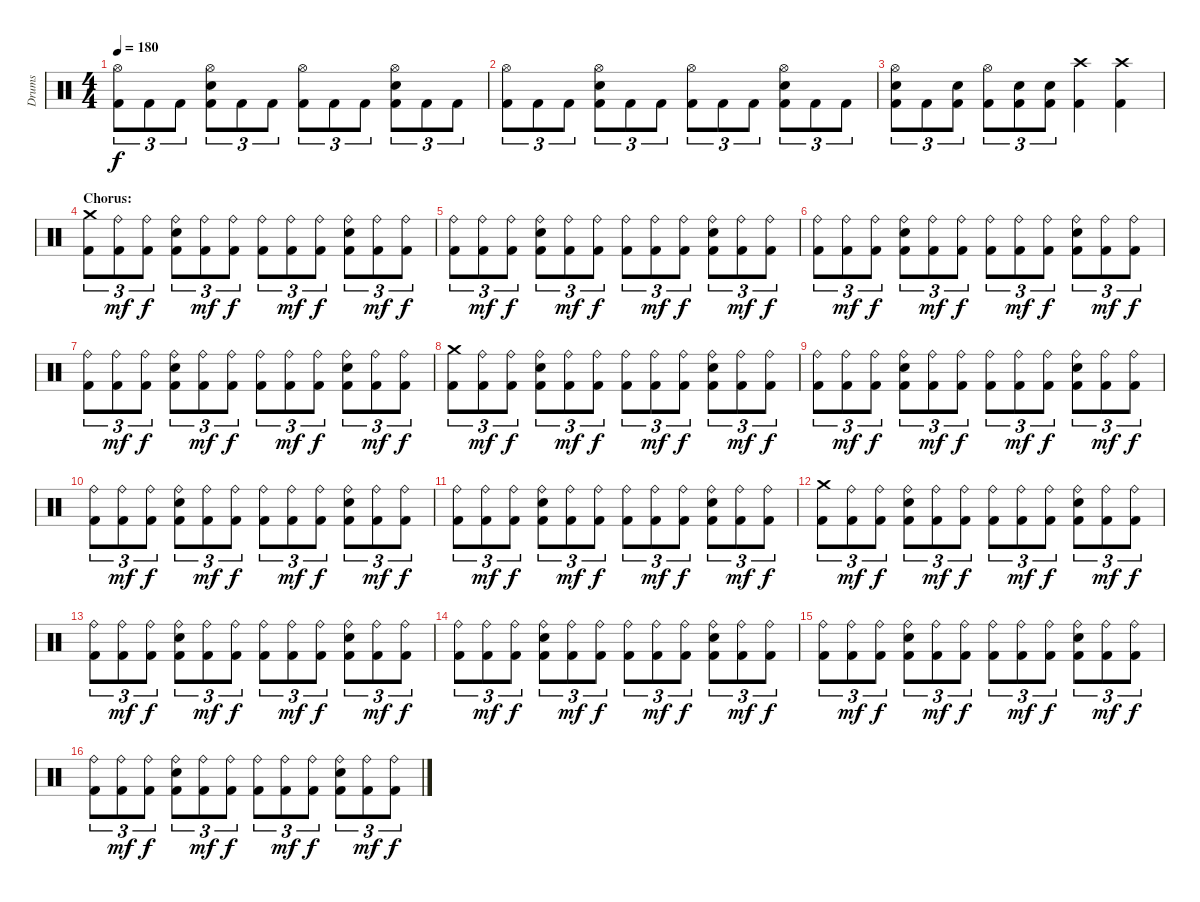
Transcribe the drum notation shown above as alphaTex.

\track ("Drums" "Drums") {instrument percussion}
\staff {score}
\articulation defaults
\ts (4 4)
\tempo 180
\clef neutral
\ks c
("Hi-Hat (open)" "Kick (hit) 2").8{tu (3 2) dy f} "Kick (hit) 2".8{tu (3 2)} "Kick (hit) 2".8{tu (3 2)} ("Hi-Hat (open)" "Electric Snare (hit)" "Kick (hit) 2").8{tu (3 2)} "Kick (hit) 2".8{tu (3 2)} "Kick (hit) 2".8{tu (3 2)} ("Hi-Hat (open)" "Kick (hit) 2").8{tu (3 2)} "Kick (hit) 2".8{tu (3 2)} "Kick (hit) 2".8{tu (3 2)} ("Hi-Hat (open)" "Electric Snare (hit)" "Kick (hit) 2").8{tu (3 2)} "Kick (hit) 2".8{tu (3 2)} "Kick (hit) 2".8{tu (3 2)} |
("Hi-Hat (open)" "Kick (hit) 2").8{tu (3 2)} "Kick (hit) 2".8{tu (3 2)} "Kick (hit) 2".8{tu (3 2)} ("Hi-Hat (open)" "Electric Snare (hit)" "Kick (hit) 2").8{tu (3 2)} "Kick (hit) 2".8{tu (3 2)} "Kick (hit) 2".8{tu (3 2)} ("Hi-Hat (open)" "Kick (hit) 2").8{tu (3 2)} "Kick (hit) 2".8{tu (3 2)} "Kick (hit) 2".8{tu (3 2)} ("Hi-Hat (open)" "Electric Snare (hit)" "Kick (hit) 2").8{tu (3 2)} "Kick (hit) 2".8{tu (3 2)} "Kick (hit) 2".8{tu (3 2)} |
("Hi-Hat (open)" "Electric Snare (hit)" "Kick (hit) 2").8{tu (3 2)} "Kick (hit) 2".8{tu (3 2)} ("Electric Snare (hit)" "Kick (hit) 2").8{tu (3 2)} ("Hi-Hat (open)" "Kick (hit) 2").8{tu (3 2)} ("Electric Snare (hit)" "Kick (hit) 2").8{tu (3 2)} ("Electric Snare (hit)" "Kick (hit) 2").8{tu (3 2)} ("Crash high (hit)" "Kick (hit) 2").4 ("Crash high (hit)" "Kick (hit) 2").4 |
\section ("" "Chorus:")
("Crash medium (hit)" "Kick (hit) 2").8{tu (3 2)} ("Ride (bell)" "Kick (hit) 2").8{tu (3 2) dy mf} ("Ride (bell)" "Kick (hit) 2").8{tu (3 2) dy f} ("Ride (bell)" "Electric Snare (hit)" "Kick (hit) 2").8{tu (3 2)} ("Ride (bell)" "Kick (hit) 2").8{tu (3 2) dy mf} ("Ride (bell)" "Kick (hit) 2").8{tu (3 2) dy f} ("Ride (bell)" "Kick (hit) 2").8{tu (3 2)} ("Ride (bell)" "Kick (hit) 2").8{tu (3 2) dy mf} ("Ride (bell)" "Kick (hit) 2").8{tu (3 2) dy f} ("Ride (bell)" "Electric Snare (hit)" "Kick (hit) 2").8{tu (3 2)} ("Ride (bell)" "Kick (hit) 2").8{tu (3 2) dy mf} ("Ride (bell)" "Kick (hit) 2").8{tu (3 2) dy f} |
("Ride (bell)" "Kick (hit) 2").8{tu (3 2)} ("Ride (bell)" "Kick (hit) 2").8{tu (3 2) dy mf} ("Ride (bell)" "Kick (hit) 2").8{tu (3 2) dy f} ("Ride (bell)" "Electric Snare (hit)" "Kick (hit) 2").8{tu (3 2)} ("Ride (bell)" "Kick (hit) 2").8{tu (3 2) dy mf} ("Ride (bell)" "Kick (hit) 2").8{tu (3 2) dy f} ("Ride (bell)" "Kick (hit) 2").8{tu (3 2)} ("Ride (bell)" "Kick (hit) 2").8{tu (3 2) dy mf} ("Ride (bell)" "Kick (hit) 2").8{tu (3 2) dy f} ("Ride (bell)" "Electric Snare (hit)" "Kick (hit) 2").8{tu (3 2)} ("Ride (bell)" "Kick (hit) 2").8{tu (3 2) dy mf} ("Ride (bell)" "Kick (hit) 2").8{tu (3 2) dy f} |
("Ride (bell)" "Kick (hit) 2").8{tu (3 2)} ("Ride (bell)" "Kick (hit) 2").8{tu (3 2) dy mf} ("Ride (bell)" "Kick (hit) 2").8{tu (3 2) dy f} ("Ride (bell)" "Electric Snare (hit)" "Kick (hit) 2").8{tu (3 2)} ("Ride (bell)" "Kick (hit) 2").8{tu (3 2) dy mf} ("Ride (bell)" "Kick (hit) 2").8{tu (3 2) dy f} ("Ride (bell)" "Kick (hit) 2").8{tu (3 2)} ("Ride (bell)" "Kick (hit) 2").8{tu (3 2) dy mf} ("Ride (bell)" "Kick (hit) 2").8{tu (3 2) dy f} ("Ride (bell)" "Electric Snare (hit)" "Kick (hit) 2").8{tu (3 2)} ("Ride (bell)" "Kick (hit) 2").8{tu (3 2) dy mf} ("Ride (bell)" "Kick (hit) 2").8{tu (3 2) dy f} |
("Ride (bell)" "Kick (hit) 2").8{tu (3 2)} ("Ride (bell)" "Kick (hit) 2").8{tu (3 2) dy mf} ("Ride (bell)" "Kick (hit) 2").8{tu (3 2) dy f} ("Ride (bell)" "Electric Snare (hit)" "Kick (hit) 2").8{tu (3 2)} ("Ride (bell)" "Kick (hit) 2").8{tu (3 2) dy mf} ("Ride (bell)" "Kick (hit) 2").8{tu (3 2) dy f} ("Ride (bell)" "Kick (hit) 2").8{tu (3 2)} ("Ride (bell)" "Kick (hit) 2").8{tu (3 2) dy mf} ("Ride (bell)" "Kick (hit) 2").8{tu (3 2) dy f} ("Ride (bell)" "Electric Snare (hit)" "Kick (hit) 2").8{tu (3 2)} ("Ride (bell)" "Kick (hit) 2").8{tu (3 2) dy mf} ("Ride (bell)" "Kick (hit) 2").8{tu (3 2) dy f} |
("Crash medium (hit)" "Kick (hit) 2").8{tu (3 2)} ("Ride (bell)" "Kick (hit) 2").8{tu (3 2) dy mf} ("Ride (bell)" "Kick (hit) 2").8{tu (3 2) dy f} ("Ride (bell)" "Electric Snare (hit)" "Kick (hit) 2").8{tu (3 2)} ("Ride (bell)" "Kick (hit) 2").8{tu (3 2) dy mf} ("Ride (bell)" "Kick (hit) 2").8{tu (3 2) dy f} ("Ride (bell)" "Kick (hit) 2").8{tu (3 2)} ("Ride (bell)" "Kick (hit) 2").8{tu (3 2) dy mf} ("Ride (bell)" "Kick (hit) 2").8{tu (3 2) dy f} ("Ride (bell)" "Electric Snare (hit)" "Kick (hit) 2").8{tu (3 2)} ("Ride (bell)" "Kick (hit) 2").8{tu (3 2) dy mf} ("Ride (bell)" "Kick (hit) 2").8{tu (3 2) dy f} |
("Ride (bell)" "Kick (hit) 2").8{tu (3 2)} ("Ride (bell)" "Kick (hit) 2").8{tu (3 2) dy mf} ("Ride (bell)" "Kick (hit) 2").8{tu (3 2) dy f} ("Ride (bell)" "Electric Snare (hit)" "Kick (hit) 2").8{tu (3 2)} ("Ride (bell)" "Kick (hit) 2").8{tu (3 2) dy mf} ("Ride (bell)" "Kick (hit) 2").8{tu (3 2) dy f} ("Ride (bell)" "Kick (hit) 2").8{tu (3 2)} ("Ride (bell)" "Kick (hit) 2").8{tu (3 2) dy mf} ("Ride (bell)" "Kick (hit) 2").8{tu (3 2) dy f} ("Ride (bell)" "Electric Snare (hit)" "Kick (hit) 2").8{tu (3 2)} ("Ride (bell)" "Kick (hit) 2").8{tu (3 2) dy mf} ("Ride (bell)" "Kick (hit) 2").8{tu (3 2) dy f} |
("Ride (bell)" "Kick (hit) 2").8{tu (3 2)} ("Ride (bell)" "Kick (hit) 2").8{tu (3 2) dy mf} ("Ride (bell)" "Kick (hit) 2").8{tu (3 2) dy f} ("Ride (bell)" "Electric Snare (hit)" "Kick (hit) 2").8{tu (3 2)} ("Ride (bell)" "Kick (hit) 2").8{tu (3 2) dy mf} ("Ride (bell)" "Kick (hit) 2").8{tu (3 2) dy f} ("Ride (bell)" "Kick (hit) 2").8{tu (3 2)} ("Ride (bell)" "Kick (hit) 2").8{tu (3 2) dy mf} ("Ride (bell)" "Kick (hit) 2").8{tu (3 2) dy f} ("Ride (bell)" "Electric Snare (hit)" "Kick (hit) 2").8{tu (3 2)} ("Ride (bell)" "Kick (hit) 2").8{tu (3 2) dy mf} ("Ride (bell)" "Kick (hit) 2").8{tu (3 2) dy f} |
("Ride (bell)" "Kick (hit) 2").8{tu (3 2)} ("Ride (bell)" "Kick (hit) 2").8{tu (3 2) dy mf} ("Ride (bell)" "Kick (hit) 2").8{tu (3 2) dy f} ("Ride (bell)" "Electric Snare (hit)" "Kick (hit) 2").8{tu (3 2)} ("Ride (bell)" "Kick (hit) 2").8{tu (3 2) dy mf} ("Ride (bell)" "Kick (hit) 2").8{tu (3 2) dy f} ("Ride (bell)" "Kick (hit) 2").8{tu (3 2)} ("Ride (bell)" "Kick (hit) 2").8{tu (3 2) dy mf} ("Ride (bell)" "Kick (hit) 2").8{tu (3 2) dy f} ("Ride (bell)" "Electric Snare (hit)" "Kick (hit) 2").8{tu (3 2)} ("Ride (bell)" "Kick (hit) 2").8{tu (3 2) dy mf} ("Ride (bell)" "Kick (hit) 2").8{tu (3 2) dy f} |
("Crash medium (hit)" "Kick (hit) 2").8{tu (3 2)} ("Ride (bell)" "Kick (hit) 2").8{tu (3 2) dy mf} ("Ride (bell)" "Kick (hit) 2").8{tu (3 2) dy f} ("Ride (bell)" "Electric Snare (hit)" "Kick (hit) 2").8{tu (3 2)} ("Ride (bell)" "Kick (hit) 2").8{tu (3 2) dy mf} ("Ride (bell)" "Kick (hit) 2").8{tu (3 2) dy f} ("Ride (bell)" "Kick (hit) 2").8{tu (3 2)} ("Ride (bell)" "Kick (hit) 2").8{tu (3 2) dy mf} ("Ride (bell)" "Kick (hit) 2").8{tu (3 2) dy f} ("Ride (bell)" "Electric Snare (hit)" "Kick (hit) 2").8{tu (3 2)} ("Ride (bell)" "Kick (hit) 2").8{tu (3 2) dy mf} ("Ride (bell)" "Kick (hit) 2").8{tu (3 2) dy f} |
("Ride (bell)" "Kick (hit) 2").8{tu (3 2)} ("Ride (bell)" "Kick (hit) 2").8{tu (3 2) dy mf} ("Ride (bell)" "Kick (hit) 2").8{tu (3 2) dy f} ("Ride (bell)" "Electric Snare (hit)" "Kick (hit) 2").8{tu (3 2)} ("Ride (bell)" "Kick (hit) 2").8{tu (3 2) dy mf} ("Ride (bell)" "Kick (hit) 2").8{tu (3 2) dy f} ("Ride (bell)" "Kick (hit) 2").8{tu (3 2)} ("Ride (bell)" "Kick (hit) 2").8{tu (3 2) dy mf} ("Ride (bell)" "Kick (hit) 2").8{tu (3 2) dy f} ("Ride (bell)" "Electric Snare (hit)" "Kick (hit) 2").8{tu (3 2)} ("Ride (bell)" "Kick (hit) 2").8{tu (3 2) dy mf} ("Ride (bell)" "Kick (hit) 2").8{tu (3 2) dy f} |
("Ride (bell)" "Kick (hit) 2").8{tu (3 2)} ("Ride (bell)" "Kick (hit) 2").8{tu (3 2) dy mf} ("Ride (bell)" "Kick (hit) 2").8{tu (3 2) dy f} ("Ride (bell)" "Electric Snare (hit)" "Kick (hit) 2").8{tu (3 2)} ("Ride (bell)" "Kick (hit) 2").8{tu (3 2) dy mf} ("Ride (bell)" "Kick (hit) 2").8{tu (3 2) dy f} ("Ride (bell)" "Kick (hit) 2").8{tu (3 2)} ("Ride (bell)" "Kick (hit) 2").8{tu (3 2) dy mf} ("Ride (bell)" "Kick (hit) 2").8{tu (3 2) dy f} ("Ride (bell)" "Electric Snare (hit)" "Kick (hit) 2").8{tu (3 2)} ("Ride (bell)" "Kick (hit) 2").8{tu (3 2) dy mf} ("Ride (bell)" "Kick (hit) 2").8{tu (3 2) dy f} |
("Ride (bell)" "Kick (hit) 2").8{tu (3 2)} ("Ride (bell)" "Kick (hit) 2").8{tu (3 2) dy mf} ("Ride (bell)" "Kick (hit) 2").8{tu (3 2) dy f} ("Ride (bell)" "Electric Snare (hit)" "Kick (hit) 2").8{tu (3 2)} ("Ride (bell)" "Kick (hit) 2").8{tu (3 2) dy mf} ("Ride (bell)" "Kick (hit) 2").8{tu (3 2) dy f} ("Ride (bell)" "Kick (hit) 2").8{tu (3 2)} ("Ride (bell)" "Kick (hit) 2").8{tu (3 2) dy mf} ("Ride (bell)" "Kick (hit) 2").8{tu (3 2) dy f} ("Ride (bell)" "Electric Snare (hit)" "Kick (hit) 2").8{tu (3 2)} ("Ride (bell)" "Kick (hit) 2").8{tu (3 2) dy mf} ("Ride (bell)" "Kick (hit) 2").8{tu (3 2) dy f} |
("Ride (bell)" "Kick (hit) 2").8{tu (3 2)} ("Ride (bell)" "Kick (hit) 2").8{tu (3 2) dy mf} ("Ride (bell)" "Kick (hit) 2").8{tu (3 2) dy f} ("Ride (bell)" "Electric Snare (hit)" "Kick (hit) 2").8{tu (3 2)} ("Ride (bell)" "Kick (hit) 2").8{tu (3 2) dy mf} ("Ride (bell)" "Kick (hit) 2").8{tu (3 2) dy f} ("Ride (bell)" "Kick (hit) 2").8{tu (3 2)} ("Ride (bell)" "Kick (hit) 2").8{tu (3 2) dy mf} ("Ride (bell)" "Kick (hit) 2").8{tu (3 2) dy f} ("Ride (bell)" "Electric Snare (hit)" "Kick (hit) 2").8{tu (3 2)} ("Ride (bell)" "Kick (hit) 2").8{tu (3 2) dy mf} ("Ride (bell)" "Kick (hit) 2").8{tu (3 2) dy f}
